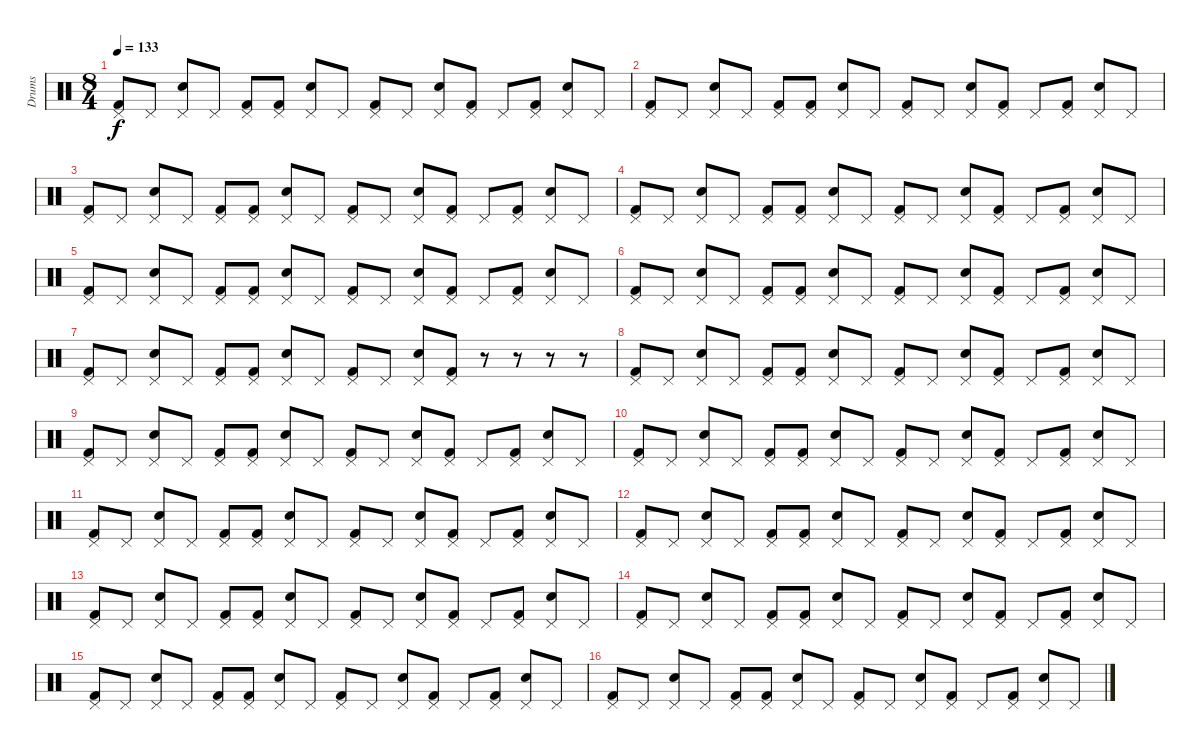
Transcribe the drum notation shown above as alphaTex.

\track ("Drums" "Drums") {instrument percussion}
\staff {score}
\articulation defaults
\ts (8 4)
\tempo 133
\clef neutral
\ks c
("Pedal Hi-Hat (hit)" "Kick (hit) 2").8{dy f} "Pedal Hi-Hat (hit)".8 ("Pedal Hi-Hat (hit)" "Snare (hit) 2").8 "Pedal Hi-Hat (hit)".8 ("Pedal Hi-Hat (hit)" "Kick (hit) 2").8 ("Pedal Hi-Hat (hit)" "Kick (hit) 2").8 ("Pedal Hi-Hat (hit)" "Snare (hit) 2").8 "Pedal Hi-Hat (hit)".8 ("Pedal Hi-Hat (hit)" "Kick (hit) 2").8 "Pedal Hi-Hat (hit)".8 ("Pedal Hi-Hat (hit)" "Snare (hit) 2").8 ("Pedal Hi-Hat (hit)" "Kick (hit) 2").8 "Pedal Hi-Hat (hit)".8 ("Pedal Hi-Hat (hit)" "Kick (hit) 2").8 ("Pedal Hi-Hat (hit)" "Snare (hit) 2").8 "Pedal Hi-Hat (hit)".8 |
("Pedal Hi-Hat (hit)" "Kick (hit) 2").8 "Pedal Hi-Hat (hit)".8 ("Pedal Hi-Hat (hit)" "Snare (hit) 2").8 "Pedal Hi-Hat (hit)".8 ("Pedal Hi-Hat (hit)" "Kick (hit) 2").8 ("Pedal Hi-Hat (hit)" "Kick (hit) 2").8 ("Pedal Hi-Hat (hit)" "Snare (hit) 2").8 "Pedal Hi-Hat (hit)".8 ("Pedal Hi-Hat (hit)" "Kick (hit) 2").8 "Pedal Hi-Hat (hit)".8 ("Pedal Hi-Hat (hit)" "Snare (hit) 2").8 ("Pedal Hi-Hat (hit)" "Kick (hit) 2").8 "Pedal Hi-Hat (hit)".8 ("Pedal Hi-Hat (hit)" "Kick (hit) 2").8 ("Pedal Hi-Hat (hit)" "Snare (hit) 2").8 "Pedal Hi-Hat (hit)".8 |
("Pedal Hi-Hat (hit)" "Kick (hit) 2").8 "Pedal Hi-Hat (hit)".8 ("Pedal Hi-Hat (hit)" "Snare (hit) 2").8 "Pedal Hi-Hat (hit)".8 ("Pedal Hi-Hat (hit)" "Kick (hit) 2").8 ("Pedal Hi-Hat (hit)" "Kick (hit) 2").8 ("Pedal Hi-Hat (hit)" "Snare (hit) 2").8 "Pedal Hi-Hat (hit)".8 ("Pedal Hi-Hat (hit)" "Kick (hit) 2").8 "Pedal Hi-Hat (hit)".8 ("Pedal Hi-Hat (hit)" "Snare (hit) 2").8 ("Pedal Hi-Hat (hit)" "Kick (hit) 2").8 "Pedal Hi-Hat (hit)".8 ("Pedal Hi-Hat (hit)" "Kick (hit) 2").8 ("Pedal Hi-Hat (hit)" "Snare (hit) 2").8 "Pedal Hi-Hat (hit)".8 |
("Pedal Hi-Hat (hit)" "Kick (hit) 2").8 "Pedal Hi-Hat (hit)".8 ("Pedal Hi-Hat (hit)" "Snare (hit) 2").8 "Pedal Hi-Hat (hit)".8 ("Pedal Hi-Hat (hit)" "Kick (hit) 2").8 ("Pedal Hi-Hat (hit)" "Kick (hit) 2").8 ("Pedal Hi-Hat (hit)" "Snare (hit) 2").8 "Pedal Hi-Hat (hit)".8 ("Pedal Hi-Hat (hit)" "Kick (hit) 2").8 "Pedal Hi-Hat (hit)".8 ("Pedal Hi-Hat (hit)" "Snare (hit) 2").8 ("Pedal Hi-Hat (hit)" "Kick (hit) 2").8 "Pedal Hi-Hat (hit)".8 ("Pedal Hi-Hat (hit)" "Kick (hit) 2").8 ("Pedal Hi-Hat (hit)" "Snare (hit) 2").8 "Pedal Hi-Hat (hit)".8 |
("Pedal Hi-Hat (hit)" "Kick (hit) 2").8 "Pedal Hi-Hat (hit)".8 ("Pedal Hi-Hat (hit)" "Snare (hit) 2").8 "Pedal Hi-Hat (hit)".8 ("Pedal Hi-Hat (hit)" "Kick (hit) 2").8 ("Pedal Hi-Hat (hit)" "Kick (hit) 2").8 ("Pedal Hi-Hat (hit)" "Snare (hit) 2").8 "Pedal Hi-Hat (hit)".8 ("Pedal Hi-Hat (hit)" "Kick (hit) 2").8 "Pedal Hi-Hat (hit)".8 ("Pedal Hi-Hat (hit)" "Snare (hit) 2").8 ("Pedal Hi-Hat (hit)" "Kick (hit) 2").8 "Pedal Hi-Hat (hit)".8 ("Pedal Hi-Hat (hit)" "Kick (hit) 2").8 ("Pedal Hi-Hat (hit)" "Snare (hit) 2").8 "Pedal Hi-Hat (hit)".8 |
("Pedal Hi-Hat (hit)" "Kick (hit) 2").8 "Pedal Hi-Hat (hit)".8 ("Pedal Hi-Hat (hit)" "Snare (hit) 2").8 "Pedal Hi-Hat (hit)".8 ("Pedal Hi-Hat (hit)" "Kick (hit) 2").8 ("Pedal Hi-Hat (hit)" "Kick (hit) 2").8 ("Pedal Hi-Hat (hit)" "Snare (hit) 2").8 "Pedal Hi-Hat (hit)".8 ("Pedal Hi-Hat (hit)" "Kick (hit) 2").8 "Pedal Hi-Hat (hit)".8 ("Pedal Hi-Hat (hit)" "Snare (hit) 2").8 ("Pedal Hi-Hat (hit)" "Kick (hit) 2").8 "Pedal Hi-Hat (hit)".8 ("Pedal Hi-Hat (hit)" "Kick (hit) 2").8 ("Pedal Hi-Hat (hit)" "Snare (hit) 2").8 "Pedal Hi-Hat (hit)".8 |
("Pedal Hi-Hat (hit)" "Kick (hit) 2").8 "Pedal Hi-Hat (hit)".8 ("Pedal Hi-Hat (hit)" "Snare (hit) 2").8 "Pedal Hi-Hat (hit)".8 ("Pedal Hi-Hat (hit)" "Kick (hit) 2").8 ("Pedal Hi-Hat (hit)" "Kick (hit) 2").8 ("Pedal Hi-Hat (hit)" "Snare (hit) 2").8 "Pedal Hi-Hat (hit)".8 ("Pedal Hi-Hat (hit)" "Kick (hit) 2").8 "Pedal Hi-Hat (hit)".8 ("Pedal Hi-Hat (hit)" "Snare (hit) 2").8 ("Pedal Hi-Hat (hit)" "Kick (hit) 2").8 r.8 r.8 r.8 r.8 |
("Pedal Hi-Hat (hit)" "Kick (hit) 2").8 "Pedal Hi-Hat (hit)".8 ("Pedal Hi-Hat (hit)" "Snare (hit) 2").8 "Pedal Hi-Hat (hit)".8 ("Pedal Hi-Hat (hit)" "Kick (hit) 2").8 ("Pedal Hi-Hat (hit)" "Kick (hit) 2").8 ("Pedal Hi-Hat (hit)" "Snare (hit) 2").8 "Pedal Hi-Hat (hit)".8 ("Pedal Hi-Hat (hit)" "Kick (hit) 2").8 "Pedal Hi-Hat (hit)".8 ("Pedal Hi-Hat (hit)" "Snare (hit) 2").8 ("Pedal Hi-Hat (hit)" "Kick (hit) 2").8 "Pedal Hi-Hat (hit)".8 ("Pedal Hi-Hat (hit)" "Kick (hit) 2").8 ("Pedal Hi-Hat (hit)" "Snare (hit) 2").8 "Pedal Hi-Hat (hit)".8 |
("Pedal Hi-Hat (hit)" "Kick (hit) 2").8 "Pedal Hi-Hat (hit)".8 ("Pedal Hi-Hat (hit)" "Snare (hit) 2").8 "Pedal Hi-Hat (hit)".8 ("Pedal Hi-Hat (hit)" "Kick (hit) 2").8 ("Pedal Hi-Hat (hit)" "Kick (hit) 2").8 ("Pedal Hi-Hat (hit)" "Snare (hit) 2").8 "Pedal Hi-Hat (hit)".8 ("Pedal Hi-Hat (hit)" "Kick (hit) 2").8 "Pedal Hi-Hat (hit)".8 ("Pedal Hi-Hat (hit)" "Snare (hit) 2").8 ("Pedal Hi-Hat (hit)" "Kick (hit) 2").8 "Pedal Hi-Hat (hit)".8 ("Pedal Hi-Hat (hit)" "Kick (hit) 2").8 ("Pedal Hi-Hat (hit)" "Snare (hit) 2").8 "Pedal Hi-Hat (hit)".8 |
("Pedal Hi-Hat (hit)" "Kick (hit) 2").8 "Pedal Hi-Hat (hit)".8 ("Pedal Hi-Hat (hit)" "Snare (hit) 2").8 "Pedal Hi-Hat (hit)".8 ("Pedal Hi-Hat (hit)" "Kick (hit) 2").8 ("Pedal Hi-Hat (hit)" "Kick (hit) 2").8 ("Pedal Hi-Hat (hit)" "Snare (hit) 2").8 "Pedal Hi-Hat (hit)".8 ("Pedal Hi-Hat (hit)" "Kick (hit) 2").8 "Pedal Hi-Hat (hit)".8 ("Pedal Hi-Hat (hit)" "Snare (hit) 2").8 ("Pedal Hi-Hat (hit)" "Kick (hit) 2").8 "Pedal Hi-Hat (hit)".8 ("Pedal Hi-Hat (hit)" "Kick (hit) 2").8 ("Pedal Hi-Hat (hit)" "Snare (hit) 2").8 "Pedal Hi-Hat (hit)".8 |
("Pedal Hi-Hat (hit)" "Kick (hit) 2").8 "Pedal Hi-Hat (hit)".8 ("Pedal Hi-Hat (hit)" "Snare (hit) 2").8 "Pedal Hi-Hat (hit)".8 ("Pedal Hi-Hat (hit)" "Kick (hit) 2").8 ("Pedal Hi-Hat (hit)" "Kick (hit) 2").8 ("Pedal Hi-Hat (hit)" "Snare (hit) 2").8 "Pedal Hi-Hat (hit)".8 ("Pedal Hi-Hat (hit)" "Kick (hit) 2").8 "Pedal Hi-Hat (hit)".8 ("Pedal Hi-Hat (hit)" "Snare (hit) 2").8 ("Pedal Hi-Hat (hit)" "Kick (hit) 2").8 "Pedal Hi-Hat (hit)".8 ("Pedal Hi-Hat (hit)" "Kick (hit) 2").8 ("Pedal Hi-Hat (hit)" "Snare (hit) 2").8 "Pedal Hi-Hat (hit)".8 |
("Pedal Hi-Hat (hit)" "Kick (hit) 2").8 "Pedal Hi-Hat (hit)".8 ("Pedal Hi-Hat (hit)" "Snare (hit) 2").8 "Pedal Hi-Hat (hit)".8 ("Pedal Hi-Hat (hit)" "Kick (hit) 2").8 ("Pedal Hi-Hat (hit)" "Kick (hit) 2").8 ("Pedal Hi-Hat (hit)" "Snare (hit) 2").8 "Pedal Hi-Hat (hit)".8 ("Pedal Hi-Hat (hit)" "Kick (hit) 2").8 "Pedal Hi-Hat (hit)".8 ("Pedal Hi-Hat (hit)" "Snare (hit) 2").8 ("Pedal Hi-Hat (hit)" "Kick (hit) 2").8 "Pedal Hi-Hat (hit)".8 ("Pedal Hi-Hat (hit)" "Kick (hit) 2").8 ("Pedal Hi-Hat (hit)" "Snare (hit) 2").8 "Pedal Hi-Hat (hit)".8 |
("Pedal Hi-Hat (hit)" "Kick (hit) 2").8 "Pedal Hi-Hat (hit)".8 ("Pedal Hi-Hat (hit)" "Snare (hit) 2").8 "Pedal Hi-Hat (hit)".8 ("Pedal Hi-Hat (hit)" "Kick (hit) 2").8 ("Pedal Hi-Hat (hit)" "Kick (hit) 2").8 ("Pedal Hi-Hat (hit)" "Snare (hit) 2").8 "Pedal Hi-Hat (hit)".8 ("Pedal Hi-Hat (hit)" "Kick (hit) 2").8 "Pedal Hi-Hat (hit)".8 ("Pedal Hi-Hat (hit)" "Snare (hit) 2").8 ("Pedal Hi-Hat (hit)" "Kick (hit) 2").8 "Pedal Hi-Hat (hit)".8 ("Pedal Hi-Hat (hit)" "Kick (hit) 2").8 ("Pedal Hi-Hat (hit)" "Snare (hit) 2").8 "Pedal Hi-Hat (hit)".8 |
("Pedal Hi-Hat (hit)" "Kick (hit) 2").8 "Pedal Hi-Hat (hit)".8 ("Pedal Hi-Hat (hit)" "Snare (hit) 2").8 "Pedal Hi-Hat (hit)".8 ("Pedal Hi-Hat (hit)" "Kick (hit) 2").8 ("Pedal Hi-Hat (hit)" "Kick (hit) 2").8 ("Pedal Hi-Hat (hit)" "Snare (hit) 2").8 "Pedal Hi-Hat (hit)".8 ("Pedal Hi-Hat (hit)" "Kick (hit) 2").8 "Pedal Hi-Hat (hit)".8 ("Pedal Hi-Hat (hit)" "Snare (hit) 2").8 ("Pedal Hi-Hat (hit)" "Kick (hit) 2").8 "Pedal Hi-Hat (hit)".8 ("Pedal Hi-Hat (hit)" "Kick (hit) 2").8 ("Pedal Hi-Hat (hit)" "Snare (hit) 2").8 "Pedal Hi-Hat (hit)".8 |
("Pedal Hi-Hat (hit)" "Kick (hit) 2").8 "Pedal Hi-Hat (hit)".8 ("Pedal Hi-Hat (hit)" "Snare (hit) 2").8 "Pedal Hi-Hat (hit)".8 ("Pedal Hi-Hat (hit)" "Kick (hit) 2").8 ("Pedal Hi-Hat (hit)" "Kick (hit) 2").8 ("Pedal Hi-Hat (hit)" "Snare (hit) 2").8 "Pedal Hi-Hat (hit)".8 ("Pedal Hi-Hat (hit)" "Kick (hit) 2").8 "Pedal Hi-Hat (hit)".8 ("Pedal Hi-Hat (hit)" "Snare (hit) 2").8 ("Pedal Hi-Hat (hit)" "Kick (hit) 2").8 "Pedal Hi-Hat (hit)".8 ("Pedal Hi-Hat (hit)" "Kick (hit) 2").8 ("Pedal Hi-Hat (hit)" "Snare (hit) 2").8 "Pedal Hi-Hat (hit)".8 |
("Pedal Hi-Hat (hit)" "Kick (hit) 2").8 "Pedal Hi-Hat (hit)".8 ("Pedal Hi-Hat (hit)" "Snare (hit) 2").8 "Pedal Hi-Hat (hit)".8 ("Pedal Hi-Hat (hit)" "Kick (hit) 2").8 ("Pedal Hi-Hat (hit)" "Kick (hit) 2").8 ("Pedal Hi-Hat (hit)" "Snare (hit) 2").8 "Pedal Hi-Hat (hit)".8 ("Pedal Hi-Hat (hit)" "Kick (hit) 2").8 "Pedal Hi-Hat (hit)".8 ("Pedal Hi-Hat (hit)" "Snare (hit) 2").8 ("Pedal Hi-Hat (hit)" "Kick (hit) 2").8 "Pedal Hi-Hat (hit)".8 ("Pedal Hi-Hat (hit)" "Kick (hit) 2").8 ("Pedal Hi-Hat (hit)" "Snare (hit) 2").8 "Pedal Hi-Hat (hit)".8
